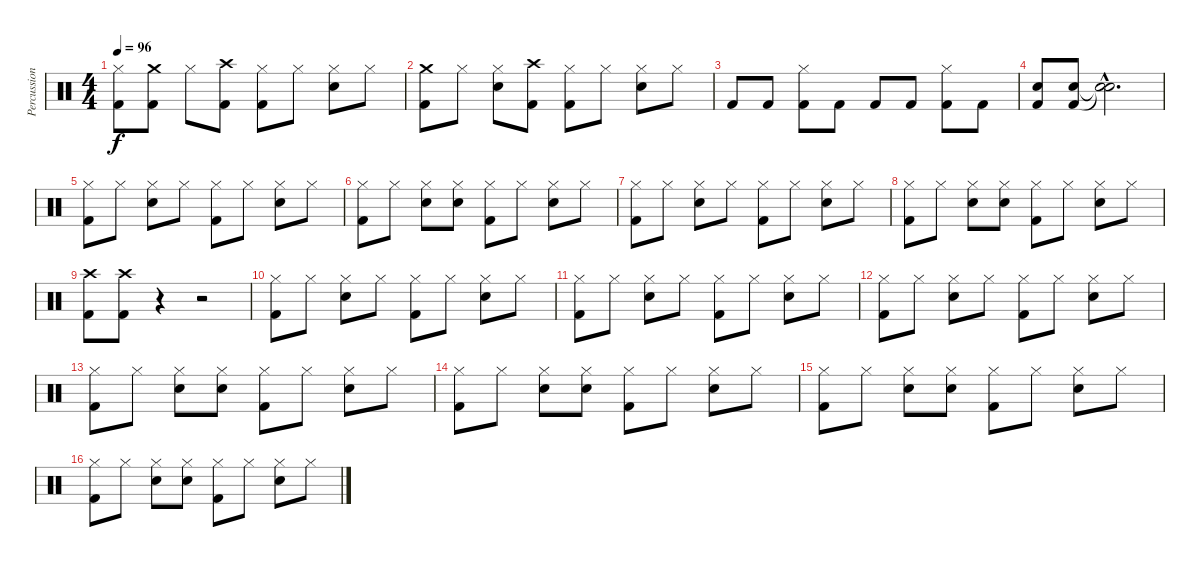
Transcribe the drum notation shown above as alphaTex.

\track ("Percussion" "Percussion") {instrument percussion}
\staff {score}
\articulation defaults
\ts (4 4)
\tempo 96
\clef neutral
\ks c
("Kick (hit) 2" "Hi-Hat (closed)").8{dy f} ("Crash medium (hit)" "Kick (hit) 2").8 "Hi-Hat (closed)".8 ("Crash high (hit)" "Kick (hit) 2").8 ("Hi-Hat (closed)" "Kick (hit) 2").8 "Hi-Hat (closed)".8 ("Hi-Hat (closed)" "Snare (hit) 2").8 "Hi-Hat (closed)".8 |
("Crash medium (hit)" "Kick (hit) 2").8 "Hi-Hat (closed)".8 ("Hi-Hat (closed)" "Snare (hit) 2").8 ("Crash high (hit)" "Kick (hit) 2").8 ("Hi-Hat (closed)" "Kick (hit) 2").8 "Hi-Hat (closed)".8 ("Hi-Hat (closed)" "Snare (hit) 2").8 "Hi-Hat (closed)".8 |
"Kick (hit) 2".8 "Kick (hit) 2".8 ("Hi-Hat (closed)" "Kick (hit) 2").8 "Kick (hit) 2".8 "Kick (hit) 2".8 "Kick (hit) 2".8 ("Hi-Hat (closed)" "Kick (hit) 2").8 "Kick (hit) 2".8 |
("Snare (hit) 2" "Kick (hit) 2").8 ("Kick (hit) 2" "Snare (hit) 2").8 ("Snare (hit)"{hac t} "Snare (hit)"{hac t}).2{d} |
("Hi-Hat (closed)" "Kick (hit) 2").8 "Hi-Hat (closed)".8 ("Hi-Hat (closed)" "Snare (hit) 2").8 "Hi-Hat (closed)".8 ("Hi-Hat (closed)" "Kick (hit) 2").8 "Hi-Hat (closed)".8 ("Hi-Hat (closed)" "Snare (hit) 2").8 "Hi-Hat (closed)".8 |
("Hi-Hat (closed)" "Kick (hit) 2").8 "Hi-Hat (closed)".8 ("Hi-Hat (closed)" "Snare (hit) 2").8 ("Hi-Hat (closed)" "Snare (hit) 2").8 ("Hi-Hat (closed)" "Kick (hit) 2").8 "Hi-Hat (closed)".8 ("Hi-Hat (closed)" "Snare (hit) 2").8 "Hi-Hat (closed)".8 |
("Hi-Hat (closed)" "Kick (hit) 2").8 "Hi-Hat (closed)".8 ("Hi-Hat (closed)" "Snare (hit) 2").8 "Hi-Hat (closed)".8 ("Hi-Hat (closed)" "Kick (hit) 2").8 "Hi-Hat (closed)".8 ("Hi-Hat (closed)" "Snare (hit) 2").8 "Hi-Hat (closed)".8 |
("Hi-Hat (closed)" "Kick (hit) 2").8 "Hi-Hat (closed)".8 ("Hi-Hat (closed)" "Snare (hit) 2").8 ("Hi-Hat (closed)" "Snare (hit) 2").8 ("Hi-Hat (closed)" "Kick (hit) 2").8 "Hi-Hat (closed)".8 ("Hi-Hat (closed)" "Snare (hit) 2").8 "Hi-Hat (closed)".8 |
("Kick (hit) 2" "Crash high (hit)").8 ("Kick (hit) 2" "Crash high (hit)").8 r.4 r.2 |
("Hi-Hat (closed)" "Kick (hit) 2").8 "Hi-Hat (closed)".8 ("Hi-Hat (closed)" "Snare (hit) 2").8 "Hi-Hat (closed)".8 ("Hi-Hat (closed)" "Kick (hit) 2").8 "Hi-Hat (closed)".8 ("Hi-Hat (closed)" "Snare (hit) 2").8 "Hi-Hat (closed)".8 |
("Hi-Hat (closed)" "Kick (hit) 2").8 "Hi-Hat (closed)".8 ("Hi-Hat (closed)" "Snare (hit) 2").8 "Hi-Hat (closed)".8 ("Hi-Hat (closed)" "Kick (hit) 2").8 "Hi-Hat (closed)".8 ("Hi-Hat (closed)" "Snare (hit) 2").8 "Hi-Hat (closed)".8 |
("Hi-Hat (closed)" "Kick (hit) 2").8 "Hi-Hat (closed)".8 ("Hi-Hat (closed)" "Snare (hit) 2").8 "Hi-Hat (closed)".8 ("Hi-Hat (closed)" "Kick (hit) 2").8 "Hi-Hat (closed)".8 ("Hi-Hat (closed)" "Snare (hit) 2").8 "Hi-Hat (closed)".8 |
("Hi-Hat (closed)" "Kick (hit) 2").8 "Hi-Hat (closed)".8 ("Hi-Hat (closed)" "Snare (hit) 2").8 ("Hi-Hat (closed)" "Snare (hit) 2").8 ("Hi-Hat (closed)" "Kick (hit) 2").8 "Hi-Hat (closed)".8 ("Hi-Hat (closed)" "Snare (hit) 2").8 "Hi-Hat (closed)".8 |
("Hi-Hat (closed)" "Kick (hit) 2").8 "Hi-Hat (closed)".8 ("Hi-Hat (closed)" "Snare (hit) 2").8 ("Hi-Hat (closed)" "Snare (hit) 2").8 ("Hi-Hat (closed)" "Kick (hit) 2").8 "Hi-Hat (closed)".8 ("Hi-Hat (closed)" "Snare (hit) 2").8 "Hi-Hat (closed)".8 |
("Hi-Hat (closed)" "Kick (hit) 2").8 "Hi-Hat (closed)".8 ("Hi-Hat (closed)" "Snare (hit) 2").8 ("Hi-Hat (closed)" "Snare (hit) 2").8 ("Hi-Hat (closed)" "Kick (hit) 2").8 "Hi-Hat (closed)".8 ("Hi-Hat (closed)" "Snare (hit) 2").8 "Hi-Hat (closed)".8 |
("Hi-Hat (closed)" "Kick (hit) 2").8 "Hi-Hat (closed)".8 ("Hi-Hat (closed)" "Snare (hit) 2").8 ("Hi-Hat (closed)" "Snare (hit) 2").8 ("Hi-Hat (closed)" "Kick (hit) 2").8 "Hi-Hat (closed)".8 ("Hi-Hat (closed)" "Snare (hit) 2").8 "Hi-Hat (closed)".8
